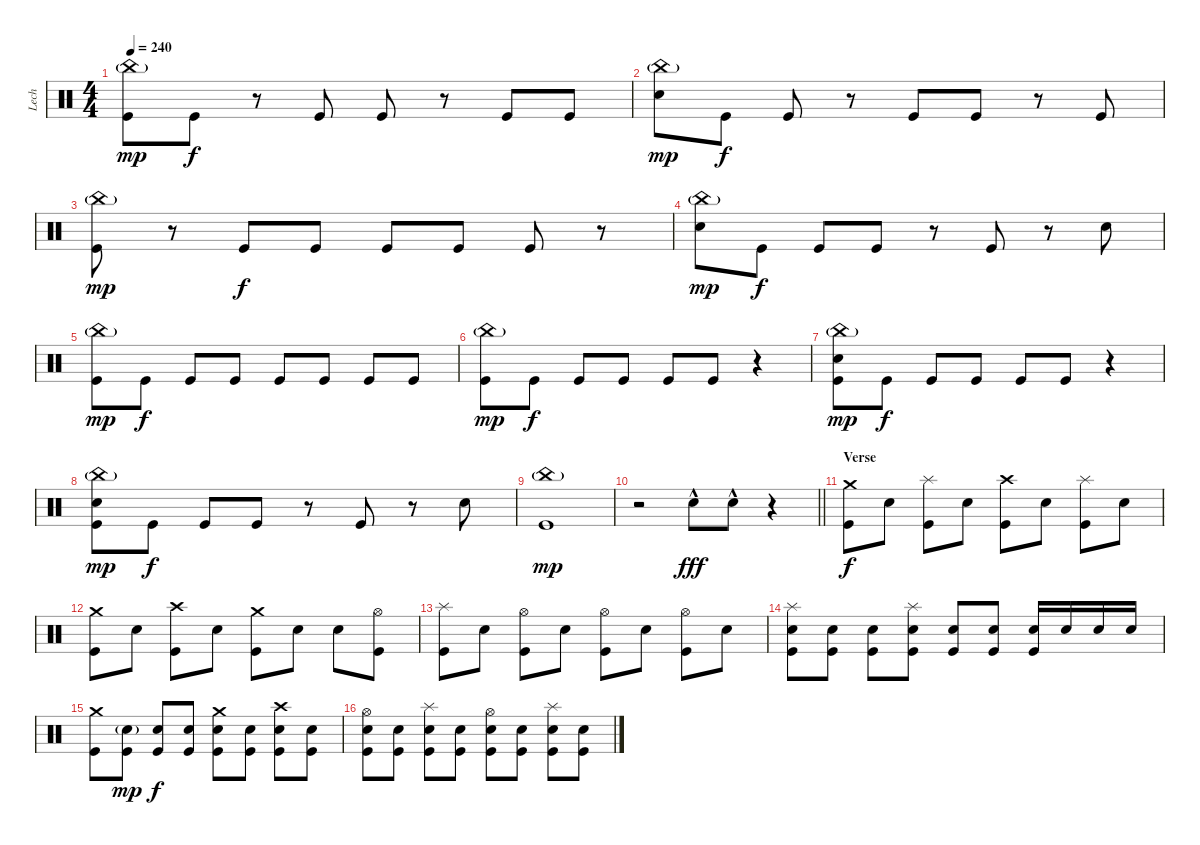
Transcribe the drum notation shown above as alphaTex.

\track ("Lech" "Lech") {instrument percussion}
\staff {score}
\articulation defaults
\ts (4 4)
\tempo 240
\clef neutral
\ks c
("China (hit)"{g} "Kick (hit)").8{dy mp} "Kick (hit)".8{dy f} r.8 "Kick (hit)".8 "Kick (hit)".8 r.8 "Kick (hit)".8 "Kick (hit)".8 |
("China (hit)"{g} "Snare (hit) 2").8{dy mp} "Kick (hit)".8{dy f} "Kick (hit)".8 r.8 "Kick (hit)".8 "Kick (hit)".8 r.8 "Kick (hit)".8 |
("China (hit)"{g} "Kick (hit)").8{dy mp} r.8 "Kick (hit)".8{dy f} "Kick (hit)".8 "Kick (hit)".8 "Kick (hit)".8 "Kick (hit)".8 r.8 |
("China (hit)"{g} "Snare (hit) 2").8{dy mp} "Kick (hit)".8{dy f} "Kick (hit)".8 "Kick (hit)".8 r.8 "Kick (hit)".8 r.8 "Snare (hit) 2".8 |
("China (hit)"{g} "Kick (hit)").8{dy mp} "Kick (hit)".8{dy f} "Kick (hit)".8 "Kick (hit)".8 "Kick (hit)".8 "Kick (hit)".8 "Kick (hit)".8 "Kick (hit)".8 |
("China (hit)"{g} "Kick (hit)").8{dy mp} "Kick (hit)".8{dy f} "Kick (hit)".8 "Kick (hit)".8 "Kick (hit)".8 "Kick (hit)".8 r.4 |
("China (hit)"{g} "Snare (hit) 2" "Kick (hit)").8{dy mp} "Kick (hit)".8{dy f} "Kick (hit)".8 "Kick (hit)".8 "Kick (hit)".8 "Kick (hit)".8 r.4 |
("China (hit)"{g} "Snare (hit) 2" "Kick (hit)").8{dy mp} "Kick (hit)".8{dy f} "Kick (hit)".8 "Kick (hit)".8 r.8 "Kick (hit)".8 r.8 "Snare (hit) 2".8 |
("China (hit)"{g} "Kick (hit)").1{dy mp} |
\barLineRight lightlight
r.2 "Snare (hit) 2"{hac}.8{dy fff} "Snare (hit) 2"{hac}.8 r.4 |
\section ("" "Verse")
("Crash medium (hit)" "Kick (hit)").8{dy f} "Snare (hit) 2".8 ("Splash (hit)" "Kick (hit)").8 "Snare (hit) 2".8 ("Crash high (hit)" "Kick (hit)").8 "Snare (hit) 2".8 ("Splash (hit)" "Kick (hit)").8 "Snare (hit) 2".8 |
("Crash medium (hit)" "Kick (hit)").8 "Snare (hit) 2".8 ("Crash high (hit)" "Kick (hit)").8 "Snare (hit) 2".8 ("Crash medium (hit)" "Kick (hit)").8 "Snare (hit) 2".8 "Electric Snare (hit)".8 ("Hi-Hat (open)" "Kick (hit)").8 |
("Splash (hit)" "Kick (hit)").8 "Snare (hit) 2".8 ("Hi-Hat (open)" "Kick (hit)").8 "Snare (hit) 2".8 ("Hi-Hat (open)" "Kick (hit)").8 "Snare (hit) 2".8 ("Hi-Hat (open)" "Kick (hit)").8 "Snare (hit) 2".8 |
("Splash (hit)" "Snare (hit) 2" "Kick (hit)").8 ("Snare (hit) 2" "Kick (hit)").8 ("Snare (hit) 2" "Kick (hit)").8 ("Splash (hit)" "Snare (hit) 2" "Kick (hit)").8 ("Snare (hit) 2" "Kick (hit)").8 ("Snare (hit) 2" "Kick (hit)").8 ("Snare (hit) 2" "Kick (hit)").16 "Snare (hit) 2".16 "Snare (hit) 2".16 "Snare (hit) 2".16 |
("Crash medium (hit)" "Kick (hit)").8 ("Snare (hit) 2"{g} "Kick (hit)").8{dy mp} ("Snare (hit) 2" "Kick (hit)").8{dy f} ("Snare (hit) 2" "Kick (hit)").8 ("Crash medium (hit)" "Snare (hit) 2" "Kick (hit)").8 ("Snare (hit) 2" "Kick (hit)").8 ("Crash high (hit)" "Snare (hit) 2" "Kick (hit)").8 ("Snare (hit) 2" "Kick (hit)").8 |
("Hi-Hat (open)" "Snare (hit) 2" "Kick (hit)").8 ("Snare (hit) 2" "Kick (hit)").8 ("Splash (hit)" "Snare (hit) 2" "Kick (hit)").8 ("Snare (hit) 2" "Kick (hit)").8 ("Hi-Hat (open)" "Snare (hit) 2" "Kick (hit)").8 ("Snare (hit) 2" "Kick (hit)").8 ("Splash (hit)" "Snare (hit) 2" "Kick (hit)").8 ("Snare (hit) 2" "Kick (hit)").8
